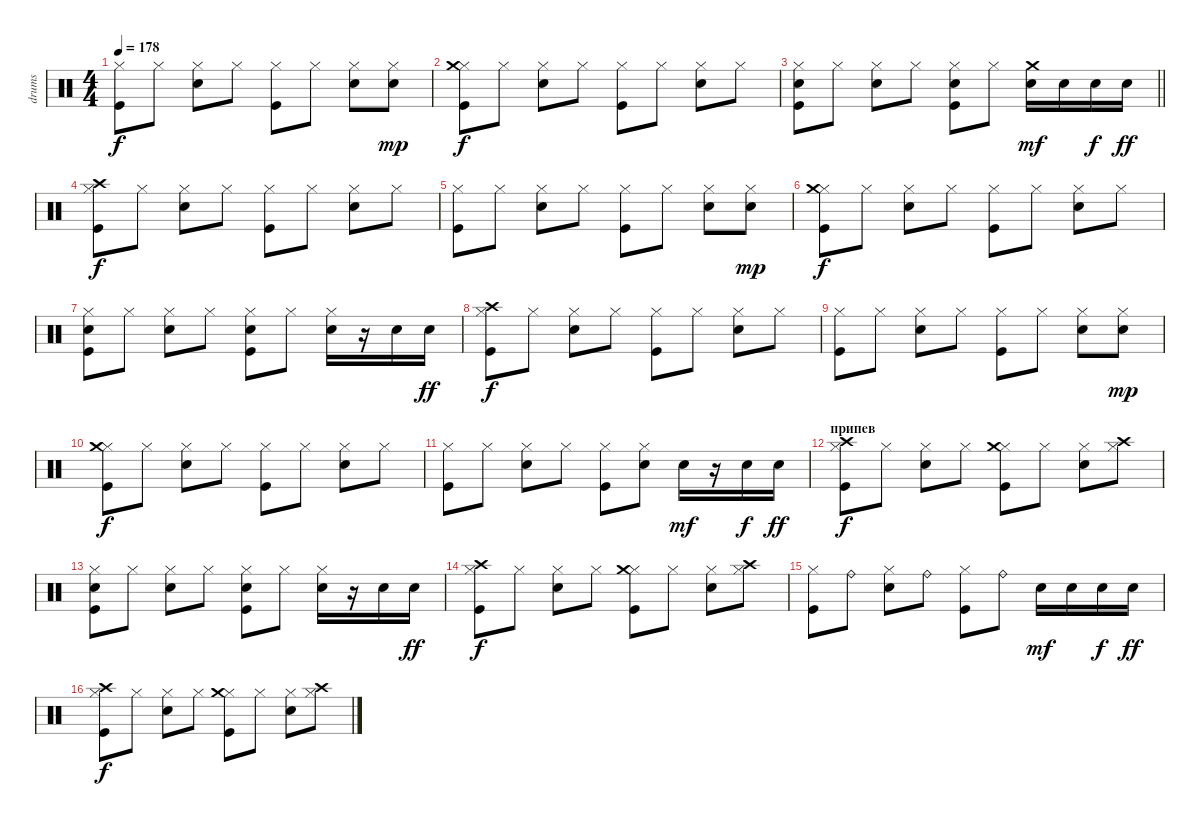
\track ("drums" "drums") {instrument percussion}
\staff {score}
\articulation defaults
\ts (4 4)
\tempo 178
\clef neutral
\ks c
("Hi-Hat (closed)" "Kick (hit)").8{dy f} "Hi-Hat (closed)".8 ("Hi-Hat (closed)" "Electric Snare (hit)").8 "Hi-Hat (closed)".8 ("Hi-Hat (closed)" "Kick (hit)").8 "Hi-Hat (closed)".8 ("Hi-Hat (closed)" "Electric Snare (hit)").8 ("Hi-Hat (closed)" "Electric Snare (hit)").8{dy mp} |
("Hi-Hat (closed)" "Crash medium (hit)" "Kick (hit)").8{dy f} "Hi-Hat (closed)".8 ("Hi-Hat (closed)" "Electric Snare (hit)").8 "Hi-Hat (closed)".8 ("Hi-Hat (closed)" "Kick (hit)").8 "Hi-Hat (closed)".8 ("Hi-Hat (closed)" "Electric Snare (hit)").8 "Hi-Hat (closed)".8 |
\barLineRight lightlight
("Hi-Hat (closed)" "Electric Snare (hit)" "Kick (hit)").8 "Hi-Hat (closed)".8 ("Hi-Hat (closed)" "Electric Snare (hit)").8 "Hi-Hat (closed)".8 ("Hi-Hat (closed)" "Electric Snare (hit)" "Kick (hit)").8 "Hi-Hat (closed)".8 ("Crash medium (hit)" "Electric Snare (hit)").16{dy mf} "Electric Snare (hit)".16 "Electric Snare (hit)".16{dy f} "Electric Snare (hit)".16{dy ff} |
("Hi-Hat (closed)" "Crash high (hit)" "Kick (hit)").8{dy f} "Hi-Hat (closed)".8 ("Hi-Hat (closed)" "Electric Snare (hit)").8 "Hi-Hat (closed)".8 ("Hi-Hat (closed)" "Kick (hit)").8 "Hi-Hat (closed)".8 ("Hi-Hat (closed)" "Electric Snare (hit)").8 "Hi-Hat (closed)".8 |
("Hi-Hat (closed)" "Kick (hit)").8 "Hi-Hat (closed)".8 ("Hi-Hat (closed)" "Electric Snare (hit)").8 "Hi-Hat (closed)".8 ("Hi-Hat (closed)" "Kick (hit)").8 "Hi-Hat (closed)".8 ("Hi-Hat (closed)" "Electric Snare (hit)").8 ("Hi-Hat (closed)" "Electric Snare (hit)").8{dy mp} |
("Hi-Hat (closed)" "Crash medium (hit)" "Kick (hit)").8{dy f} "Hi-Hat (closed)".8 ("Hi-Hat (closed)" "Electric Snare (hit)").8 "Hi-Hat (closed)".8 ("Hi-Hat (closed)" "Kick (hit)").8 "Hi-Hat (closed)".8 ("Hi-Hat (closed)" "Electric Snare (hit)").8 "Hi-Hat (closed)".8 |
("Hi-Hat (closed)" "Electric Snare (hit)" "Kick (hit)").8 "Hi-Hat (closed)".8 ("Hi-Hat (closed)" "Electric Snare (hit)").8 "Hi-Hat (closed)".8 ("Hi-Hat (closed)" "Electric Snare (hit)" "Kick (hit)").8 "Hi-Hat (closed)".8 ("Hi-Hat (closed)" "Electric Snare (hit)").16 r.16 "Electric Snare (hit)".16 "Electric Snare (hit)".16{dy ff} |
("Hi-Hat (closed)" "Crash high (hit)" "Kick (hit)").8{dy f} "Hi-Hat (closed)".8 ("Hi-Hat (closed)" "Electric Snare (hit)").8 "Hi-Hat (closed)".8 ("Hi-Hat (closed)" "Kick (hit)").8 "Hi-Hat (closed)".8 ("Hi-Hat (closed)" "Electric Snare (hit)").8 "Hi-Hat (closed)".8 |
("Hi-Hat (closed)" "Kick (hit)").8 "Hi-Hat (closed)".8 ("Hi-Hat (closed)" "Electric Snare (hit)").8 "Hi-Hat (closed)".8 ("Hi-Hat (closed)" "Kick (hit)").8 "Hi-Hat (closed)".8 ("Hi-Hat (closed)" "Electric Snare (hit)").8 ("Hi-Hat (closed)" "Electric Snare (hit)").8{dy mp} |
("Hi-Hat (closed)" "Crash medium (hit)" "Kick (hit)").8{dy f} "Hi-Hat (closed)".8 ("Hi-Hat (closed)" "Electric Snare (hit)").8 "Hi-Hat (closed)".8 ("Hi-Hat (closed)" "Kick (hit)").8 "Hi-Hat (closed)".8 ("Hi-Hat (closed)" "Electric Snare (hit)").8 "Hi-Hat (closed)".8 |
("Hi-Hat (closed)" "Kick (hit)").8 "Hi-Hat (closed)".8 ("Hi-Hat (closed)" "Electric Snare (hit)").8 "Hi-Hat (closed)".8 ("Hi-Hat (closed)" "Kick (hit)").8 ("Hi-Hat (closed)" "Electric Snare (hit)").8 "Electric Snare (hit)".16{dy mf} r.16 "Electric Snare (hit)".16{dy f} "Electric Snare (hit)".16{dy ff} |
\section ("" "припев")
("Hi-Hat (closed)" "Crash high (hit)" "Kick (hit)").8{dy f} "Hi-Hat (closed)".8 ("Hi-Hat (closed)" "Electric Snare (hit)").8 "Hi-Hat (closed)".8 ("Hi-Hat (closed)" "Crash medium (hit)" "Kick (hit)").8 "Hi-Hat (closed)".8 ("Hi-Hat (closed)" "Electric Snare (hit)").8 ("Hi-Hat (closed)" "Crash high (hit)").8 |
("Hi-Hat (closed)" "Electric Snare (hit)" "Kick (hit)").8 "Hi-Hat (closed)".8 ("Hi-Hat (closed)" "Electric Snare (hit)").8 "Hi-Hat (closed)".8 ("Hi-Hat (closed)" "Electric Snare (hit)" "Kick (hit)").8 "Hi-Hat (closed)".8 ("Hi-Hat (closed)" "Electric Snare (hit)").16 r.16 "Electric Snare (hit)".16 "Electric Snare (hit)".16{dy ff} |
("Hi-Hat (closed)" "Crash high (hit)" "Kick (hit)").8{dy f} "Hi-Hat (closed)".8 ("Hi-Hat (closed)" "Electric Snare (hit)").8 "Hi-Hat (closed)".8 ("Hi-Hat (closed)" "Crash medium (hit)" "Kick (hit)").8 "Hi-Hat (closed)".8 ("Hi-Hat (closed)" "Electric Snare (hit)").8 ("Hi-Hat (closed)" "Crash high (hit)").8 |
("Hi-Hat (closed)" "Kick (hit)").8 "Ride (bell)".8 ("Hi-Hat (closed)" "Electric Snare (hit)").8 "Ride (bell)".8 ("Hi-Hat (closed)" "Kick (hit)").8 "Ride (bell)".8 "Electric Snare (hit)".16{dy mf} "Electric Snare (hit)".16 "Electric Snare (hit)".16{dy f} "Electric Snare (hit)".16{dy ff} |
("Hi-Hat (closed)" "Crash high (hit)" "Kick (hit)").8{dy f} "Hi-Hat (closed)".8 ("Hi-Hat (closed)" "Electric Snare (hit)").8 "Hi-Hat (closed)".8 ("Hi-Hat (closed)" "Crash medium (hit)" "Kick (hit)").8 "Hi-Hat (closed)".8 ("Hi-Hat (closed)" "Electric Snare (hit)").8 ("Hi-Hat (closed)" "Crash high (hit)").8
